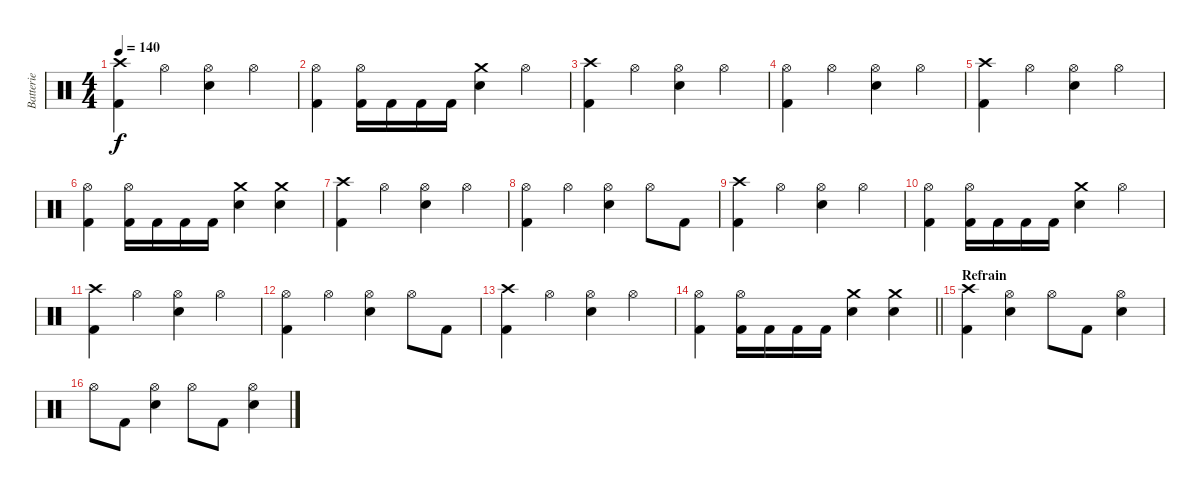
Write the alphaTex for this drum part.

\track ("Batterie" "Batterie") {instrument percussion}
\staff {score}
\articulation defaults
\ts (4 4)
\tempo 140
\clef neutral
\ks c
("Crash high (hit)" "Kick (hit) 2").4{dy f} "Hi-Hat (open)".4 ("Hi-Hat (open)" "Electric Snare (hit)").4 "Hi-Hat (open)".4 |
("Hi-Hat (open)" "Kick (hit) 2").4 ("Hi-Hat (open)" "Kick (hit) 2").16 "Kick (hit) 2".16 "Kick (hit) 2".16 "Kick (hit) 2".16 ("Crash medium (hit)" "Electric Snare (hit)").4 "Hi-Hat (open)".4 |
("Crash high (hit)" "Kick (hit) 2").4 "Hi-Hat (open)".4 ("Hi-Hat (open)" "Electric Snare (hit)").4 "Hi-Hat (open)".4 |
("Hi-Hat (open)" "Kick (hit) 2").4 "Hi-Hat (open)".4 ("Hi-Hat (open)" "Electric Snare (hit)").4 "Hi-Hat (open)".4 |
("Crash high (hit)" "Kick (hit) 2").4 "Hi-Hat (open)".4 ("Hi-Hat (open)" "Electric Snare (hit)").4 "Hi-Hat (open)".4 |
("Hi-Hat (open)" "Kick (hit) 2").4 ("Hi-Hat (open)" "Kick (hit) 2").16 "Kick (hit) 2".16 "Kick (hit) 2".16 "Kick (hit) 2".16 ("Crash medium (hit)" "Electric Snare (hit)").4 ("Crash medium (hit)" "Electric Snare (hit)").4 |
("Crash high (hit)" "Kick (hit) 2").4 "Hi-Hat (open)".4 ("Hi-Hat (open)" "Electric Snare (hit)").4 "Hi-Hat (open)".4 |
("Hi-Hat (open)" "Kick (hit) 2").4 "Hi-Hat (open)".4 ("Hi-Hat (open)" "Electric Snare (hit)").4 "Hi-Hat (open)".8 "Kick (hit) 2".8 |
("Crash high (hit)" "Kick (hit) 2").4 "Hi-Hat (open)".4 ("Hi-Hat (open)" "Electric Snare (hit)").4 "Hi-Hat (open)".4 |
("Hi-Hat (open)" "Kick (hit) 2").4 ("Hi-Hat (open)" "Kick (hit) 2").16 "Kick (hit) 2".16 "Kick (hit) 2".16 "Kick (hit) 2".16 ("Crash medium (hit)" "Electric Snare (hit)").4 "Hi-Hat (open)".4 |
("Crash high (hit)" "Kick (hit) 2").4 "Hi-Hat (open)".4 ("Hi-Hat (open)" "Electric Snare (hit)").4 "Hi-Hat (open)".4 |
("Hi-Hat (open)" "Kick (hit) 2").4 "Hi-Hat (open)".4 ("Hi-Hat (open)" "Electric Snare (hit)").4 "Hi-Hat (open)".8 "Kick (hit) 2".8 |
("Crash high (hit)" "Kick (hit) 2").4 "Hi-Hat (open)".4 ("Hi-Hat (open)" "Electric Snare (hit)").4 "Hi-Hat (open)".4 |
\barLineRight lightlight
("Hi-Hat (open)" "Kick (hit) 2").4 ("Hi-Hat (open)" "Kick (hit) 2").16 "Kick (hit) 2".16 "Kick (hit) 2".16 "Kick (hit) 2".16 ("Crash medium (hit)" "Electric Snare (hit)").4 ("Crash medium (hit)" "Electric Snare (hit)").4 |
\section ("" "Refrain")
("Crash high (hit)" "Kick (hit) 2").4 ("Hi-Hat (open)" "Electric Snare (hit)").4 "Hi-Hat (open)".8 "Kick (hit) 2".8 ("Hi-Hat (open)" "Electric Snare (hit)").4 |
"Hi-Hat (open)".8 "Kick (hit) 2".8 ("Hi-Hat (open)" "Electric Snare (hit)").4 "Hi-Hat (open)".8 "Kick (hit) 2".8 ("Hi-Hat (open)" "Electric Snare (hit)").4
